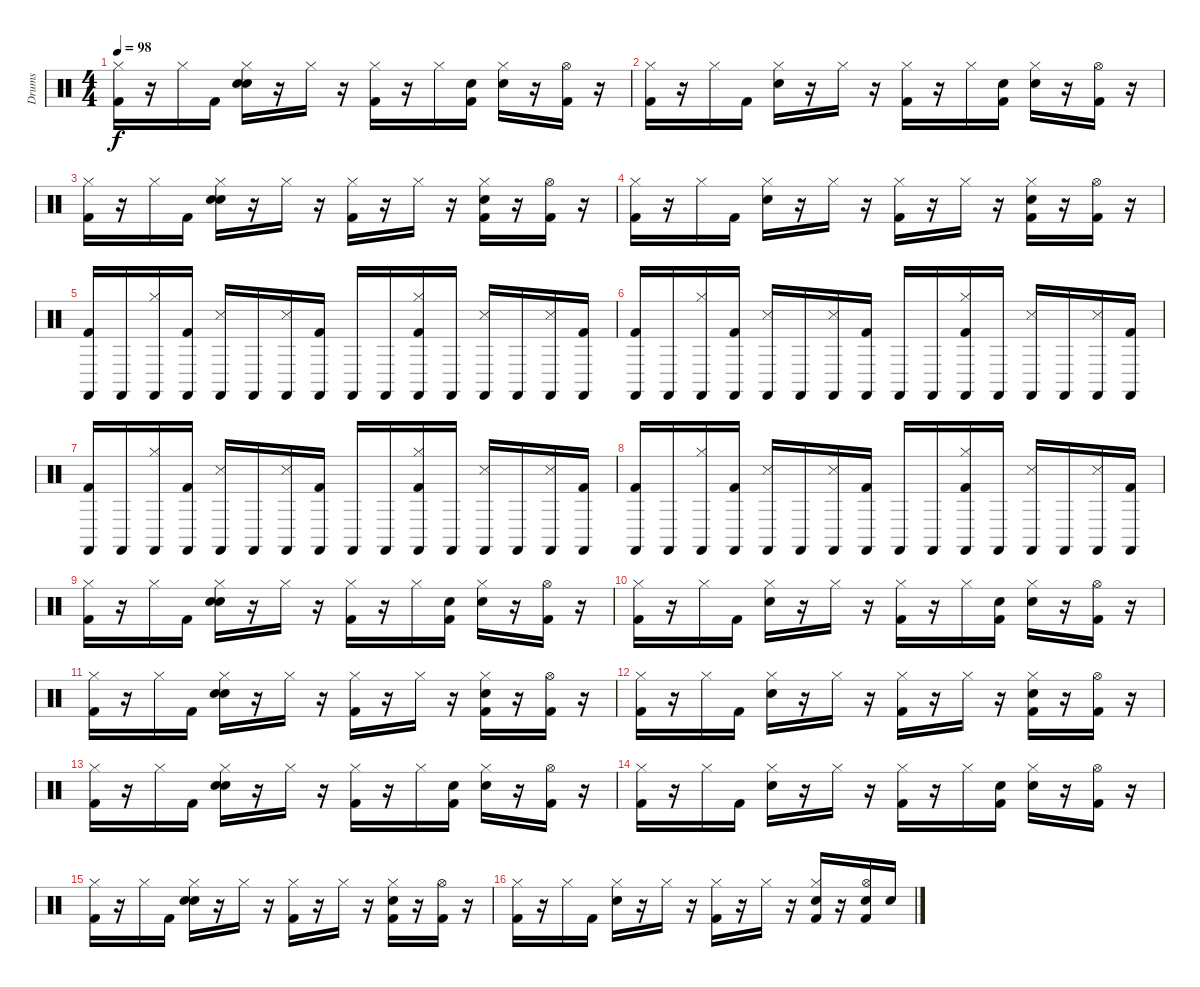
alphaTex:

\track ("Drums" "Drums") {instrument percussion}
\staff {score}
\articulation defaults
\ts (4 4)
\tempo 98
\clef neutral
\ks c
("Kick (hit) 2" "Hi-Hat (closed)").16{dy f} r.16 "Hi-Hat (closed)".16 "Kick (hit) 2".16 ("Snare (hit)" "Snare (hit) 2" "Hi-Hat (closed)").16 r.16 "Hi-Hat (closed)".16 r.16 ("Kick (hit) 2" "Hi-Hat (closed)").16 r.16 "Hi-Hat (closed)".16 ("Snare (hit)" "Kick (hit) 2").16 ("Snare (hit) 2" "Hi-Hat (closed)").16 r.16 ("Kick (hit) 2" "Hi-Hat (open)").16 r.16 |
("Kick (hit) 2" "Hi-Hat (closed)").16 r.16 "Hi-Hat (closed)".16 "Kick (hit) 2".16 ("Snare (hit) 2" "Hi-Hat (closed)").16 r.16 "Hi-Hat (closed)".16 r.16 ("Kick (hit) 2" "Hi-Hat (closed)").16 r.16 "Hi-Hat (closed)".16 ("Snare (hit)" "Kick (hit) 2").16 ("Snare (hit) 2" "Hi-Hat (closed)").16 r.16 ("Kick (hit) 2" "Hi-Hat (open)").16 r.16 |
("Kick (hit) 2" "Hi-Hat (closed)").16 r.16 "Hi-Hat (closed)".16 "Kick (hit) 2".16 ("Snare (hit)" "Snare (hit) 2" "Hi-Hat (closed)").16 r.16 "Hi-Hat (closed)".16 r.16 ("Kick (hit) 2" "Hi-Hat (closed)").16 r.16 "Hi-Hat (closed)".16 r.16 ("Kick (hit) 2" "Snare (hit) 2" "Hi-Hat (closed)").16 r.16 ("Kick (hit) 2" "Hi-Hat (open)").16 r.16 |
("Kick (hit) 2" "Hi-Hat (closed)").16 r.16 "Hi-Hat (closed)".16 "Kick (hit) 2".16 ("Snare (hit) 2" "Hi-Hat (closed)").16 r.16 "Hi-Hat (closed)".16 r.16 ("Kick (hit) 2" "Hi-Hat (closed)").16 r.16 "Hi-Hat (closed)".16 r.16 ("Kick (hit) 2" "Snare (hit) 2" "Hi-Hat (closed)").16 r.16 ("Kick (hit) 2" "Hi-Hat (open)").16 r.16 |
("Castanets (hit)" "Kick (hit) 2").16 "Castanets (hit)".16 ("Castanets (hit)" "Hi-Hat (closed)").16 ("Castanets (hit)" "Kick (hit) 2").16 ("Castanets (hit)" "Snare (side stick) 3").16 "Castanets (hit)".16 ("Castanets (hit)" "Snare (side stick) 3").16 ("Castanets (hit)" "Kick (hit) 2").16 "Castanets (hit)".16 "Castanets (hit)".16 ("Castanets (hit)" "Hi-Hat (closed)" "Kick (hit) 2").16 "Castanets (hit)".16 ("Castanets (hit)" "Snare (side stick) 3").16 "Castanets (hit)".16 ("Castanets (hit)" "Snare (side stick) 3").16 ("Castanets (hit)" "Kick (hit) 2").16 |
("Castanets (hit)" "Kick (hit) 2").16 "Castanets (hit)".16 ("Castanets (hit)" "Hi-Hat (closed)").16 ("Castanets (hit)" "Kick (hit) 2").16 ("Castanets (hit)" "Snare (side stick) 3").16 "Castanets (hit)".16 ("Castanets (hit)" "Snare (side stick) 3").16 ("Castanets (hit)" "Kick (hit) 2").16 "Castanets (hit)".16 "Castanets (hit)".16 ("Castanets (hit)" "Hi-Hat (closed)" "Kick (hit) 2").16 "Castanets (hit)".16 ("Castanets (hit)" "Snare (side stick) 3").16 "Castanets (hit)".16 ("Castanets (hit)" "Snare (side stick) 3").16 ("Castanets (hit)" "Kick (hit) 2").16 |
("Castanets (hit)" "Kick (hit) 2").16 "Castanets (hit)".16 ("Castanets (hit)" "Hi-Hat (closed)").16 ("Castanets (hit)" "Kick (hit) 2").16 ("Castanets (hit)" "Snare (side stick) 3").16 "Castanets (hit)".16 ("Castanets (hit)" "Snare (side stick) 3").16 ("Castanets (hit)" "Kick (hit) 2").16 "Castanets (hit)".16 "Castanets (hit)".16 ("Castanets (hit)" "Hi-Hat (closed)" "Kick (hit) 2").16 "Castanets (hit)".16 ("Castanets (hit)" "Snare (side stick) 3").16 "Castanets (hit)".16 ("Castanets (hit)" "Snare (side stick) 3").16 ("Castanets (hit)" "Kick (hit) 2").16 |
("Castanets (hit)" "Kick (hit) 2").16 "Castanets (hit)".16 ("Castanets (hit)" "Hi-Hat (closed)").16 ("Castanets (hit)" "Kick (hit) 2").16 ("Castanets (hit)" "Snare (side stick) 3").16 "Castanets (hit)".16 ("Castanets (hit)" "Snare (side stick) 3").16 ("Castanets (hit)" "Kick (hit) 2").16 "Castanets (hit)".16 "Castanets (hit)".16 ("Castanets (hit)" "Hi-Hat (closed)" "Kick (hit) 2").16 "Castanets (hit)".16 ("Castanets (hit)" "Snare (side stick) 3").16 "Castanets (hit)".16 ("Castanets (hit)" "Snare (side stick) 3").16 ("Castanets (hit)" "Kick (hit) 2").16 |
("Kick (hit) 2" "Hi-Hat (closed)").16 r.16 "Hi-Hat (closed)".16 "Kick (hit) 2".16 ("Snare (hit)" "Snare (hit) 2" "Hi-Hat (closed)").16 r.16 "Hi-Hat (closed)".16 r.16 ("Kick (hit) 2" "Hi-Hat (closed)").16 r.16 "Hi-Hat (closed)".16 ("Snare (hit)" "Kick (hit) 2").16 ("Snare (hit) 2" "Hi-Hat (closed)").16 r.16 ("Kick (hit) 2" "Hi-Hat (open)").16 r.16 |
("Kick (hit) 2" "Hi-Hat (closed)").16 r.16 "Hi-Hat (closed)".16 "Kick (hit) 2".16 ("Snare (hit) 2" "Hi-Hat (closed)").16 r.16 "Hi-Hat (closed)".16 r.16 ("Kick (hit) 2" "Hi-Hat (closed)").16 r.16 "Hi-Hat (closed)".16 ("Snare (hit)" "Kick (hit) 2").16 ("Snare (hit) 2" "Hi-Hat (closed)").16 r.16 ("Kick (hit) 2" "Hi-Hat (open)").16 r.16 |
("Kick (hit) 2" "Hi-Hat (closed)").16 r.16 "Hi-Hat (closed)".16 "Kick (hit) 2".16 ("Snare (hit)" "Snare (hit) 2" "Hi-Hat (closed)").16 r.16 "Hi-Hat (closed)".16 r.16 ("Kick (hit) 2" "Hi-Hat (closed)").16 r.16 "Hi-Hat (closed)".16 r.16 ("Kick (hit) 2" "Snare (hit) 2" "Hi-Hat (closed)").16 r.16 ("Kick (hit) 2" "Hi-Hat (open)").16 r.16 |
("Kick (hit) 2" "Hi-Hat (closed)").16 r.16 "Hi-Hat (closed)".16 "Kick (hit) 2".16 ("Snare (hit) 2" "Hi-Hat (closed)").16 r.16 "Hi-Hat (closed)".16 r.16 ("Kick (hit) 2" "Hi-Hat (closed)").16 r.16 "Hi-Hat (closed)".16 r.16 ("Kick (hit) 2" "Snare (hit) 2" "Hi-Hat (closed)").16 r.16 ("Kick (hit) 2" "Hi-Hat (open)").16 r.16 |
("Kick (hit) 2" "Hi-Hat (closed)").16 r.16 "Hi-Hat (closed)".16 "Kick (hit) 2".16 ("Snare (hit)" "Snare (hit) 2" "Hi-Hat (closed)").16 r.16 "Hi-Hat (closed)".16 r.16 ("Kick (hit) 2" "Hi-Hat (closed)").16 r.16 "Hi-Hat (closed)".16 ("Snare (hit)" "Kick (hit) 2").16 ("Snare (hit) 2" "Hi-Hat (closed)").16 r.16 ("Kick (hit) 2" "Hi-Hat (open)").16 r.16 |
("Kick (hit) 2" "Hi-Hat (closed)").16 r.16 "Hi-Hat (closed)".16 "Kick (hit) 2".16 ("Snare (hit) 2" "Hi-Hat (closed)").16 r.16 "Hi-Hat (closed)".16 r.16 ("Kick (hit) 2" "Hi-Hat (closed)").16 r.16 "Hi-Hat (closed)".16 ("Snare (hit)" "Kick (hit) 2").16 ("Snare (hit) 2" "Hi-Hat (closed)").16 r.16 ("Kick (hit) 2" "Hi-Hat (open)").16 r.16 |
("Kick (hit) 2" "Hi-Hat (closed)").16 r.16 "Hi-Hat (closed)".16 "Kick (hit) 2".16 ("Snare (hit)" "Snare (hit) 2" "Hi-Hat (closed)").16 r.16 "Hi-Hat (closed)".16 r.16 ("Kick (hit) 2" "Hi-Hat (closed)").16 r.16 "Hi-Hat (closed)".16 r.16 ("Kick (hit) 2" "Snare (hit) 2" "Hi-Hat (closed)").16 r.16 ("Kick (hit) 2" "Hi-Hat (open)").16 r.16 |
("Kick (hit) 2" "Hi-Hat (closed)").16 r.16 "Hi-Hat (closed)".16 "Kick (hit) 2".16 ("Snare (hit) 2" "Hi-Hat (closed)").16 r.16 "Hi-Hat (closed)".16 r.16 ("Kick (hit) 2" "Hi-Hat (closed)").16 r.16 "Hi-Hat (closed)".16 r.16 ("Kick (hit) 2" "Snare (hit) 2" "Hi-Hat (closed)").16 r.16 ("Electric Snare (hit)" "Kick (hit) 2" "Hi-Hat (open)").16 "Electric Snare (hit)".16
